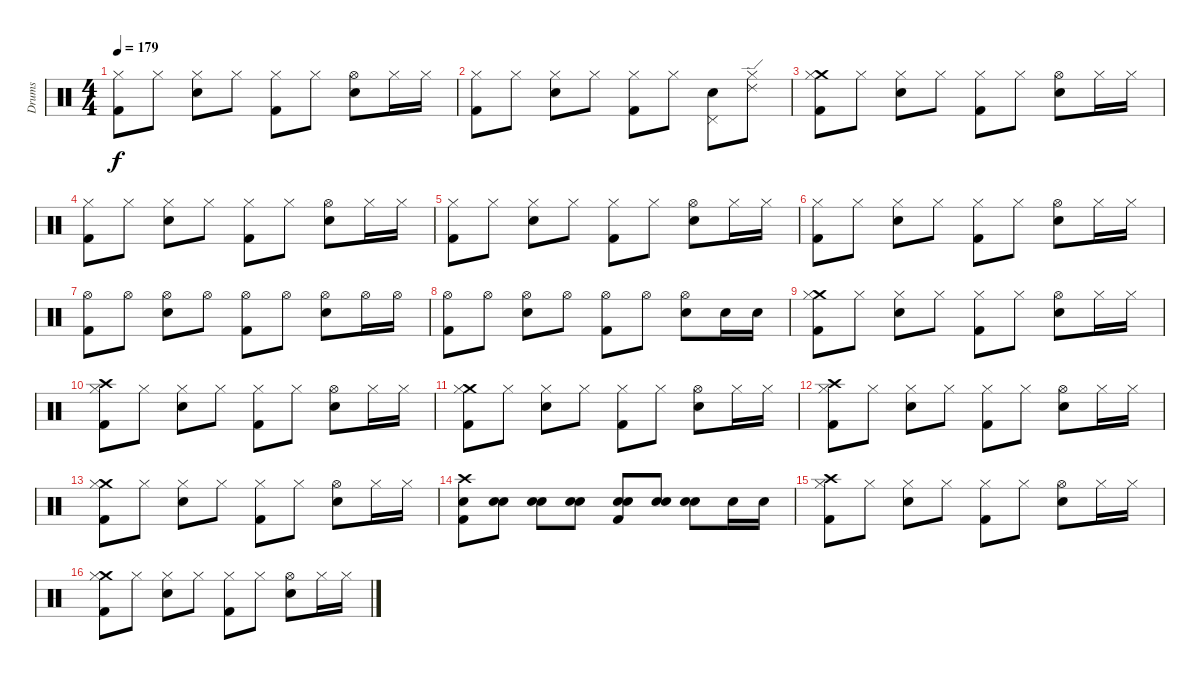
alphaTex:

\track ("Drums" "Drums") {instrument percussion}
\staff {score}
\articulation defaults
\ts (4 4)
\tempo 179
\clef neutral
\ks c
("Hi-Hat (closed)" "Kick (hit) 2").8{dy f} "Hi-Hat (closed)".8 ("Hi-Hat (closed)" "Electric Snare (hit)").8 "Hi-Hat (closed)".8 ("Hi-Hat (closed)" "Kick (hit) 2").8 "Hi-Hat (closed)".8 ("Hi-Hat (open)" "Electric Snare (hit)").8 "Hi-Hat (closed)".16 "Hi-Hat (closed)".16 |
("Hi-Hat (closed)" "Kick (hit) 2").8 "Hi-Hat (closed)".8 ("Hi-Hat (closed)" "Electric Snare (hit)").8 "Hi-Hat (closed)".8 ("Hi-Hat (closed)" "Kick (hit) 2").8 "Hi-Hat (closed)".8 ("Pedal Hi-Hat (hit)" "Electric Snare (hit)").8 ("Hi-Hat (closed)" "Ride (edge) 2").8 |
("Crash medium (hit)" "Hi-Hat (closed)" "Kick (hit) 2").8 "Hi-Hat (closed)".8 ("Hi-Hat (closed)" "Electric Snare (hit)").8 "Hi-Hat (closed)".8 ("Hi-Hat (closed)" "Kick (hit) 2").8 "Hi-Hat (closed)".8 ("Hi-Hat (open)" "Electric Snare (hit)").8 "Hi-Hat (closed)".16 "Hi-Hat (closed)".16 |
("Hi-Hat (closed)" "Kick (hit) 2").8 "Hi-Hat (closed)".8 ("Hi-Hat (closed)" "Electric Snare (hit)").8 "Hi-Hat (closed)".8 ("Hi-Hat (closed)" "Kick (hit) 2").8 "Hi-Hat (closed)".8 ("Hi-Hat (open)" "Electric Snare (hit)").8 "Hi-Hat (closed)".16 "Hi-Hat (closed)".16 |
("Hi-Hat (closed)" "Kick (hit) 2").8 "Hi-Hat (closed)".8 ("Hi-Hat (closed)" "Electric Snare (hit)").8 "Hi-Hat (closed)".8 ("Hi-Hat (closed)" "Kick (hit) 2").8 "Hi-Hat (closed)".8 ("Hi-Hat (open)" "Electric Snare (hit)").8 "Hi-Hat (closed)".16 "Hi-Hat (closed)".16 |
("Hi-Hat (closed)" "Kick (hit) 2").8 "Hi-Hat (closed)".8 ("Hi-Hat (closed)" "Electric Snare (hit)").8 "Hi-Hat (closed)".8 ("Hi-Hat (closed)" "Kick (hit) 2").8 "Hi-Hat (closed)".8 ("Hi-Hat (open)" "Electric Snare (hit)").8 "Hi-Hat (closed)".16 "Hi-Hat (closed)".16 |
("Hi-Hat (open)" "Kick (hit) 2").8 "Hi-Hat (open)".8 ("Hi-Hat (open)" "Electric Snare (hit)").8 "Hi-Hat (open)".8 ("Hi-Hat (open)" "Kick (hit) 2").8 "Hi-Hat (open)".8 ("Hi-Hat (open)" "Electric Snare (hit)").8 "Hi-Hat (open)".16 "Hi-Hat (open)".16 |
("Hi-Hat (open)" "Kick (hit) 2").8 "Hi-Hat (open)".8 ("Hi-Hat (open)" "Electric Snare (hit)").8 "Hi-Hat (open)".8 ("Hi-Hat (open)" "Kick (hit) 2").8 "Hi-Hat (open)".8 ("Hi-Hat (open)" "Electric Snare (hit)").8 "Electric Snare (hit)".16 "Electric Snare (hit)".16 |
("Crash medium (hit)" "Hi-Hat (closed)" "Kick (hit) 2").8 "Hi-Hat (closed)".8 ("Hi-Hat (closed)" "Electric Snare (hit)").8 "Hi-Hat (closed)".8 ("Hi-Hat (closed)" "Kick (hit) 2").8 "Hi-Hat (closed)".8 ("Hi-Hat (open)" "Electric Snare (hit)").8 "Hi-Hat (closed)".16 "Hi-Hat (closed)".16 |
("Crash high (hit)" "Hi-Hat (closed)" "Kick (hit) 2").8 "Hi-Hat (closed)".8 ("Hi-Hat (closed)" "Electric Snare (hit)").8 "Hi-Hat (closed)".8 ("Hi-Hat (closed)" "Kick (hit) 2").8 "Hi-Hat (closed)".8 ("Hi-Hat (open)" "Electric Snare (hit)").8 "Hi-Hat (closed)".16 "Hi-Hat (closed)".16 |
("Crash medium (hit)" "Hi-Hat (closed)" "Kick (hit) 2").8 "Hi-Hat (closed)".8 ("Hi-Hat (closed)" "Electric Snare (hit)").8 "Hi-Hat (closed)".8 ("Hi-Hat (closed)" "Kick (hit) 2").8 "Hi-Hat (closed)".8 ("Hi-Hat (open)" "Electric Snare (hit)").8 "Hi-Hat (closed)".16 "Hi-Hat (closed)".16 |
("Crash high (hit)" "Hi-Hat (closed)" "Kick (hit) 2").8 "Hi-Hat (closed)".8 ("Hi-Hat (closed)" "Electric Snare (hit)").8 "Hi-Hat (closed)".8 ("Hi-Hat (closed)" "Kick (hit) 2").8 "Hi-Hat (closed)".8 ("Hi-Hat (open)" "Electric Snare (hit)").8 "Hi-Hat (closed)".16 "Hi-Hat (closed)".16 |
("Crash medium (hit)" "Hi-Hat (closed)" "Kick (hit) 2").8 "Hi-Hat (closed)".8 ("Hi-Hat (closed)" "Electric Snare (hit)").8 "Hi-Hat (closed)".8 ("Hi-Hat (closed)" "Kick (hit) 2").8 "Hi-Hat (closed)".8 ("Hi-Hat (open)" "Electric Snare (hit)").8 "Hi-Hat (closed)".16 "Hi-Hat (closed)".16 |
("Crash high (hit)" "Kick (hit) 2" "Electric Snare (hit)").8 ("Electric Snare (hit)" "Electric Snare (hit)").8 ("Electric Snare (hit)" "Electric Snare (hit)").8 ("Electric Snare (hit)" "Electric Snare (hit)").8 ("Kick (hit) 2" "Electric Snare (hit)" "Electric Snare (hit)").8 ("Electric Snare (hit)" "Electric Snare (hit)").8 ("Electric Snare (hit)" "Electric Snare (hit)").8 "Electric Snare (hit)".16 "Electric Snare (hit)".16 |
("Crash high (hit)" "Hi-Hat (closed)" "Kick (hit) 2").8 "Hi-Hat (closed)".8 ("Hi-Hat (closed)" "Electric Snare (hit)").8 "Hi-Hat (closed)".8 ("Hi-Hat (closed)" "Kick (hit) 2").8 "Hi-Hat (closed)".8 ("Hi-Hat (open)" "Electric Snare (hit)").8 "Hi-Hat (closed)".16 "Hi-Hat (closed)".16 |
("Crash medium (hit)" "Hi-Hat (closed)" "Kick (hit) 2").8 "Hi-Hat (closed)".8 ("Hi-Hat (closed)" "Electric Snare (hit)").8 "Hi-Hat (closed)".8 ("Hi-Hat (closed)" "Kick (hit) 2").8 "Hi-Hat (closed)".8 ("Hi-Hat (open)" "Electric Snare (hit)").8 "Hi-Hat (closed)".16 "Hi-Hat (closed)".16
